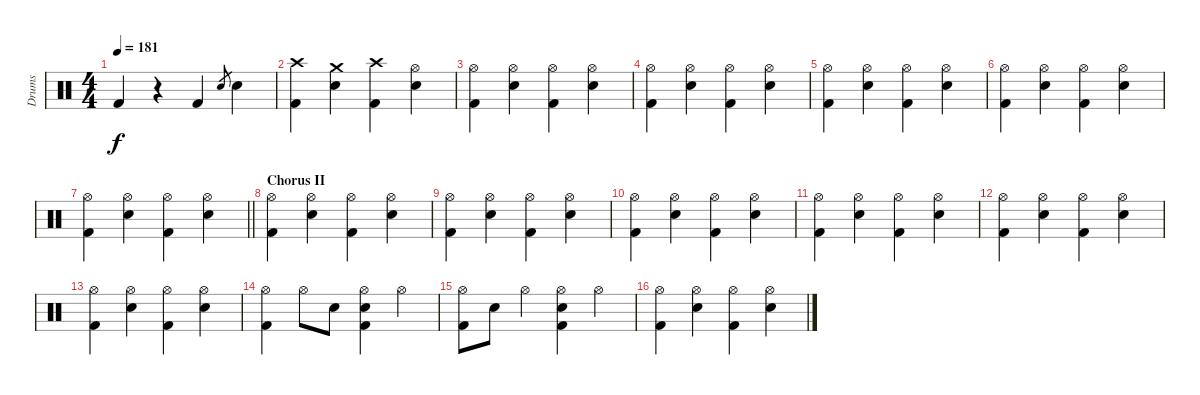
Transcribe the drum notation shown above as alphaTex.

\track ("Drums" "Drums") {instrument percussion}
\staff {score}
\articulation defaults
\ts (4 4)
\tempo 181
\clef neutral
\ks c "Kick (hit) 2".4{dy f}
r.4 "Kick (hit) 2".4 "Snare (hit) 2".8{gr} "Snare (hit) 2".4 |
("Crash high (hit)" "Kick (hit) 2").4 ("Crash medium (hit)" "Snare (hit) 2").4 ("Crash high (hit)" "Kick (hit) 2").4 ("Hi-Hat (open)" "Snare (hit) 2").4 |
("Hi-Hat (open)" "Kick (hit) 2").4 ("Hi-Hat (open)" "Snare (hit) 2").4 ("Hi-Hat (open)" "Kick (hit) 2").4 ("Hi-Hat (open)" "Snare (hit) 2").4 |
("Hi-Hat (open)" "Kick (hit) 2").4 ("Hi-Hat (open)" "Snare (hit) 2").4 ("Hi-Hat (open)" "Kick (hit) 2").4 ("Hi-Hat (open)" "Snare (hit) 2").4 |
("Hi-Hat (open)" "Kick (hit) 2").4 ("Hi-Hat (open)" "Snare (hit) 2").4 ("Hi-Hat (open)" "Kick (hit) 2").4 ("Hi-Hat (open)" "Snare (hit) 2").4 |
("Hi-Hat (open)" "Kick (hit) 2").4 ("Hi-Hat (open)" "Snare (hit) 2").4 ("Hi-Hat (open)" "Kick (hit) 2").4 ("Hi-Hat (open)" "Snare (hit) 2").4 |
\barLineRight lightlight
("Hi-Hat (open)" "Kick (hit) 2").4 ("Hi-Hat (open)" "Snare (hit) 2").4 ("Hi-Hat (open)" "Kick (hit) 2").4 ("Hi-Hat (open)" "Snare (hit) 2").4 |
\section ("" "Chorus II")
("Hi-Hat (open)" "Kick (hit) 2").4 ("Hi-Hat (open)" "Snare (hit) 2").4 ("Hi-Hat (open)" "Kick (hit) 2").4 ("Hi-Hat (open)" "Snare (hit) 2").4 |
("Hi-Hat (open)" "Kick (hit) 2").4 ("Hi-Hat (open)" "Snare (hit) 2").4 ("Hi-Hat (open)" "Kick (hit) 2").4 ("Hi-Hat (open)" "Snare (hit) 2").4 |
("Hi-Hat (open)" "Kick (hit) 2").4 ("Hi-Hat (open)" "Snare (hit) 2").4 ("Hi-Hat (open)" "Kick (hit) 2").4 ("Hi-Hat (open)" "Snare (hit) 2").4 |
("Hi-Hat (open)" "Kick (hit) 2").4 ("Hi-Hat (open)" "Snare (hit) 2").4 ("Hi-Hat (open)" "Kick (hit) 2").4 ("Hi-Hat (open)" "Snare (hit) 2").4 |
("Hi-Hat (open)" "Kick (hit) 2").4 ("Hi-Hat (open)" "Snare (hit) 2").4 ("Hi-Hat (open)" "Kick (hit) 2").4 ("Hi-Hat (open)" "Snare (hit) 2").4 |
("Hi-Hat (open)" "Kick (hit) 2").4 ("Hi-Hat (open)" "Snare (hit) 2").4 ("Hi-Hat (open)" "Kick (hit) 2").4 ("Hi-Hat (open)" "Snare (hit) 2").4 |
("Hi-Hat (open)" "Kick (hit) 2").4 "Hi-Hat (open)".8 "Snare (hit) 2".8 ("Hi-Hat (open)" "Snare (hit) 2" "Kick (hit) 2").4 "Hi-Hat (open)".4 |
("Hi-Hat (open)" "Kick (hit) 2").8 "Snare (hit) 2".8 "Hi-Hat (open)".4 ("Hi-Hat (open)" "Snare (hit) 2" "Kick (hit) 2").4 "Hi-Hat (open)".4 |
("Hi-Hat (open)" "Kick (hit) 2").4 ("Hi-Hat (open)" "Snare (hit) 2").4 ("Hi-Hat (open)" "Kick (hit) 2").4 ("Hi-Hat (open)" "Snare (hit) 2").4
